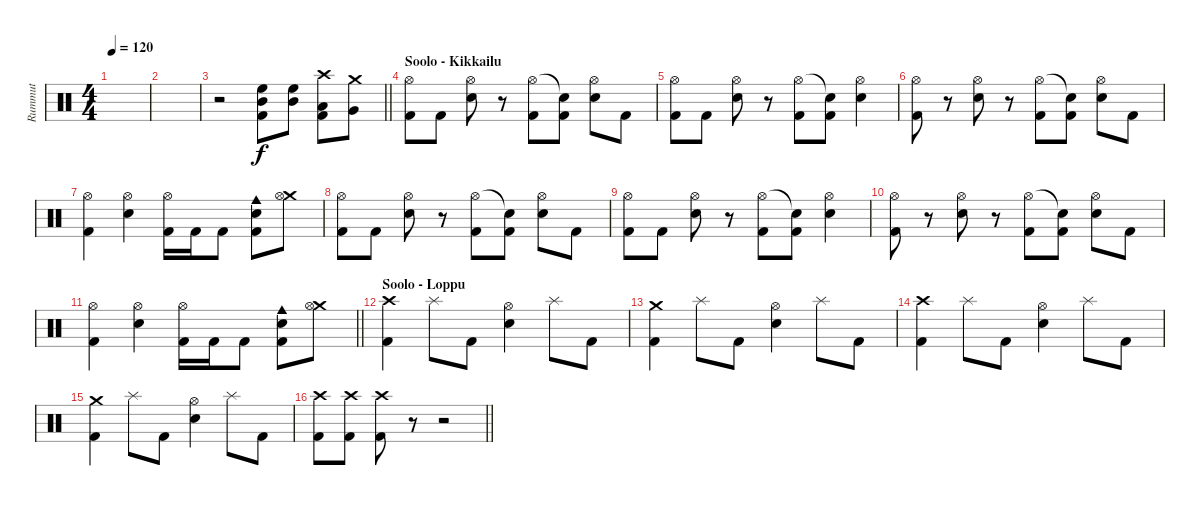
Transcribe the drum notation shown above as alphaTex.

\track ("Rummut" "Rummut") {instrument percussion}
\staff {score}
\articulation defaults
\ts (4 4)
\tempo 120
\clef neutral
\ks c
|
|
\barLineRight lightlight
r.2 ("Mid Tom (hit)" "High Floor Tom (hit)" "Kick (hit) 2").8 ("Mid Tom (hit)" "High Floor Tom (hit)").8 ("Low Tom (hit)" "Kick (hit) 2" "Crash high (hit)").8 ("Very Low Tom (hit)" "Crash medium (hit)").8 |
\section ("" "Soolo - Kikkailu")
("Hi-Hat (open)" "Kick (hit) 2").8 "Kick (hit) 2".8 ("Hi-Hat (open)" "Snare (hit) 2").8 r.8 ("Hi-Hat (open)" "Kick (hit) 2").8 ("Snare (hit)"{t} "Kick (hit) 2").8 ("Hi-Hat (open)" "Snare (hit) 2").8 "Kick (hit) 2".8 |
("Hi-Hat (open)" "Kick (hit) 2").8 "Kick (hit) 2".8 ("Hi-Hat (open)" "Snare (hit) 2").8 r.8 ("Hi-Hat (open)" "Kick (hit) 2").8 ("Snare (hit)"{t} "Kick (hit) 2").8 ("Hi-Hat (open)" "Snare (hit) 2").4 |
("Hi-Hat (open)" "Kick (hit) 2").8 r.8 ("Hi-Hat (open)" "Snare (hit) 2").8 r.8 ("Hi-Hat (open)" "Kick (hit) 2").8 ("Snare (hit)"{t} "Kick (hit) 2").8 ("Hi-Hat (open)" "Snare (hit) 2").8 "Kick (hit) 2".8 |
("Hi-Hat (open)" "Kick (hit) 2").4 ("Hi-Hat (open)" "Snare (hit) 2").4 ("Hi-Hat (open)" "Kick (hit) 2").16 "Kick (hit) 2".16 "Kick (hit) 2".8 ("Cowbell medium (hit)" "Snare (hit) 2" "Kick (hit) 2").8 ("Crash medium (hit)" "Hi-Hat (open)").8 |
("Hi-Hat (open)" "Kick (hit) 2").8 "Kick (hit) 2".8 ("Hi-Hat (open)" "Snare (hit) 2").8 r.8 ("Hi-Hat (open)" "Kick (hit) 2").8 ("Snare (hit)"{t} "Kick (hit) 2").8 ("Hi-Hat (open)" "Snare (hit) 2").8 "Kick (hit) 2".8 |
("Hi-Hat (open)" "Kick (hit) 2").8 "Kick (hit) 2".8 ("Hi-Hat (open)" "Snare (hit) 2").8 r.8 ("Hi-Hat (open)" "Kick (hit) 2").8 ("Snare (hit)"{t} "Kick (hit) 2").8 ("Hi-Hat (open)" "Snare (hit) 2").4 |
("Hi-Hat (open)" "Kick (hit) 2").8 r.8 ("Hi-Hat (open)" "Snare (hit) 2").8 r.8 ("Hi-Hat (open)" "Kick (hit) 2").8 ("Snare (hit)"{t} "Kick (hit) 2").8 ("Hi-Hat (open)" "Snare (hit) 2").8 "Kick (hit) 2".8 |
\barLineRight lightlight
("Hi-Hat (open)" "Kick (hit) 2").4 ("Hi-Hat (open)" "Snare (hit) 2").4 ("Hi-Hat (open)" "Kick (hit) 2").16 "Kick (hit) 2".16 "Kick (hit) 2".8 ("Cowbell medium (hit)" "Snare (hit) 2" "Kick (hit) 2").8 ("Crash medium (hit)" "Hi-Hat (open)").8 |
\section ("" "Soolo - Loppu")
("Crash high (hit)" "Kick (hit) 2").4 "Splash (hit)".8 "Kick (hit) 2".8 ("Hi-Hat (open)" "Snare (hit) 2").4 "Splash (hit)".8 "Kick (hit) 2".8 |
("Crash medium (hit)" "Kick (hit) 2").4 "Splash (hit)".8 "Kick (hit) 2".8 ("Hi-Hat (open)" "Snare (hit) 2").4 "Splash (hit)".8 "Kick (hit) 2".8 |
("Crash high (hit)" "Kick (hit) 2").4 "Splash (hit)".8 "Kick (hit) 2".8 ("Hi-Hat (open)" "Snare (hit) 2").4 "Splash (hit)".8 "Kick (hit) 2".8 |
("Crash medium (hit)" "Kick (hit) 2").4 "Splash (hit)".8 "Kick (hit) 2".8 ("Hi-Hat (open)" "Snare (hit) 2").4 "Splash (hit)".8 "Kick (hit) 2".8 |
\barLineRight lightlight
("Crash high (hit)" "Kick (hit) 2").8{dy f} ("Crash high (hit)" "Kick (hit) 2").8 ("Crash high (hit)" "Kick (hit) 2").8 r.8 r.2
